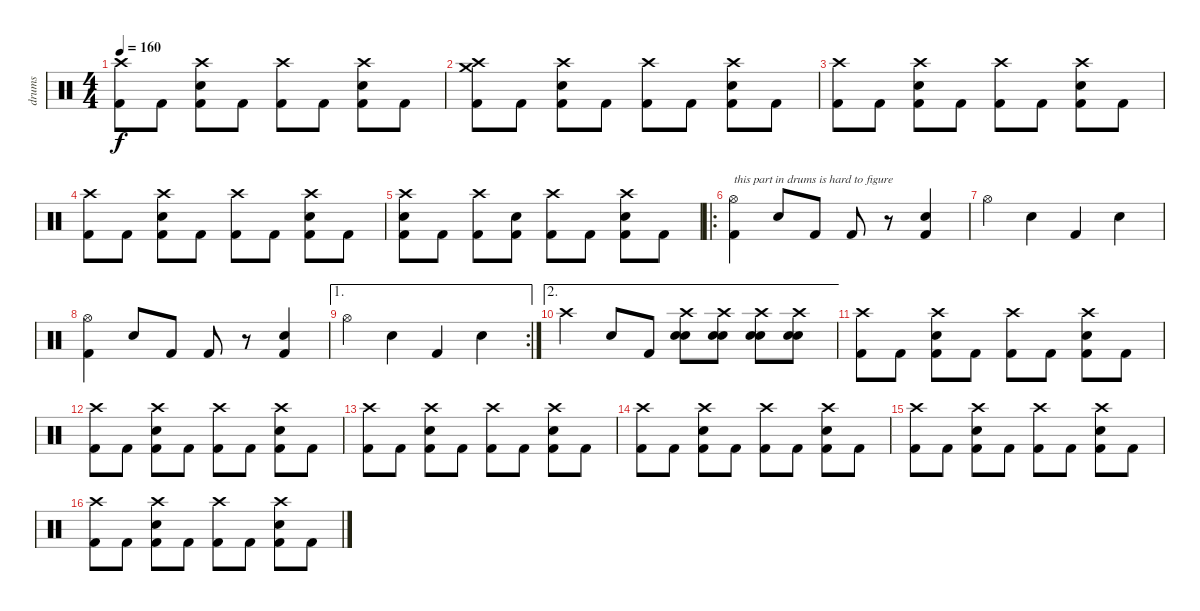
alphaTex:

\track ("drums" "drums") {instrument percussion}
\staff {score}
\articulation defaults
\ts (4 4)
\tempo 160
\clef neutral
\ks c
("Crash high (hit)" "Kick (hit) 2").8{dy f} "Kick (hit) 2".8 ("Crash high (hit)" "Electric Snare (hit)" "Kick (hit) 2").8 "Kick (hit) 2".8 ("Crash high (hit)" "Kick (hit) 2").8 "Kick (hit) 2".8 ("Crash high (hit)" "Electric Snare (hit)" "Kick (hit) 2").8 "Kick (hit) 2".8 |
("Crash high (hit)" "Crash medium (hit)" "Kick (hit) 2").8 "Kick (hit) 2".8 ("Crash high (hit)" "Electric Snare (hit)" "Kick (hit) 2").8 "Kick (hit) 2".8 ("Crash high (hit)" "Kick (hit) 2").8 "Kick (hit) 2".8 ("Crash high (hit)" "Electric Snare (hit)" "Kick (hit) 2").8 "Kick (hit) 2".8 |
("Crash high (hit)" "Kick (hit) 2").8 "Kick (hit) 2".8 ("Crash high (hit)" "Electric Snare (hit)" "Kick (hit) 2").8 "Kick (hit) 2".8 ("Crash high (hit)" "Kick (hit) 2").8 "Kick (hit) 2".8 ("Crash high (hit)" "Electric Snare (hit)" "Kick (hit) 2").8 "Kick (hit) 2".8 |
("Crash high (hit)" "Kick (hit) 2").8 "Kick (hit) 2".8 ("Crash high (hit)" "Electric Snare (hit)" "Kick (hit) 2").8 "Kick (hit) 2".8 ("Crash high (hit)" "Kick (hit) 2").8 "Kick (hit) 2".8 ("Crash high (hit)" "Electric Snare (hit)" "Kick (hit) 2").8 "Kick (hit) 2".8 |
("Crash high (hit)" "Electric Snare (hit)" "Kick (hit) 2").8 "Kick (hit) 2".8 ("Crash high (hit)" "Kick (hit) 2").8 ("Electric Snare (hit)" "Kick (hit) 2").8 ("Crash high (hit)" "Kick (hit) 2").8 "Kick (hit) 2".8 ("Crash high (hit)" "Electric Snare (hit)" "Kick (hit) 2").8 "Kick (hit) 2".8 |
\ro
("Hi-Hat (open)" "Kick (hit) 2").4{txt "this part in drums is hard to figure"} "Electric Snare (hit)".8 "Kick (hit) 2".8 "Kick (hit) 2".8 r.8 ("Electric Snare (hit)" "Kick (hit) 2").4 |
"Hi-Hat (open)".4 "Electric Snare (hit)".4 "Kick (hit) 2".4 "Electric Snare (hit)".4 |
("Hi-Hat (open)" "Kick (hit) 2").4 "Electric Snare (hit)".8 "Kick (hit) 2".8 "Kick (hit) 2".8 r.8 ("Electric Snare (hit)" "Kick (hit) 2").4 |
\ae 1
\rc 2 "Hi-Hat (open)".4 "Electric Snare (hit)".4 "Kick (hit) 2".4 "Electric Snare (hit)".4
|
\ae 2 "Crash high (hit)".4 "Electric Snare (hit)".8 "Kick (hit) 2".8
("Electric Snare (hit)" "Electric Snare (hit)" "Crash high (hit)").8 ("Electric Snare (hit)" "Electric Snare (hit)" "Crash high (hit)").8 ("Electric Snare (hit)" "Electric Snare (hit)" "Crash high (hit)").8 ("Electric Snare (hit)" "Electric Snare (hit)" "Crash high (hit)").8 |
("Crash high (hit)" "Kick (hit) 2").8 "Kick (hit) 2".8 ("Crash high (hit)" "Electric Snare (hit)" "Kick (hit) 2").8 "Kick (hit) 2".8 ("Crash high (hit)" "Kick (hit) 2").8 "Kick (hit) 2".8 ("Crash high (hit)" "Electric Snare (hit)" "Kick (hit) 2").8 "Kick (hit) 2".8 |
("Crash high (hit)" "Kick (hit) 2").8 "Kick (hit) 2".8 ("Crash high (hit)" "Electric Snare (hit)" "Kick (hit) 2").8 "Kick (hit) 2".8 ("Crash high (hit)" "Kick (hit) 2").8 "Kick (hit) 2".8 ("Crash high (hit)" "Electric Snare (hit)" "Kick (hit) 2").8 "Kick (hit) 2".8 |
("Crash high (hit)" "Kick (hit) 2").8 "Kick (hit) 2".8 ("Crash high (hit)" "Electric Snare (hit)" "Kick (hit) 2").8 "Kick (hit) 2".8 ("Crash high (hit)" "Kick (hit) 2").8 "Kick (hit) 2".8 ("Crash high (hit)" "Electric Snare (hit)" "Kick (hit) 2").8 "Kick (hit) 2".8 |
("Crash high (hit)" "Kick (hit) 2").8 "Kick (hit) 2".8 ("Crash high (hit)" "Electric Snare (hit)" "Kick (hit) 2").8 "Kick (hit) 2".8 ("Crash high (hit)" "Kick (hit) 2").8 "Kick (hit) 2".8 ("Crash high (hit)" "Electric Snare (hit)" "Kick (hit) 2").8 "Kick (hit) 2".8 |
("Crash high (hit)" "Kick (hit) 2").8 "Kick (hit) 2".8 ("Crash high (hit)" "Electric Snare (hit)" "Kick (hit) 2").8 "Kick (hit) 2".8 ("Crash high (hit)" "Kick (hit) 2").8 "Kick (hit) 2".8 ("Crash high (hit)" "Electric Snare (hit)" "Kick (hit) 2").8 "Kick (hit) 2".8 |
("Crash high (hit)" "Kick (hit) 2").8 "Kick (hit) 2".8 ("Crash high (hit)" "Electric Snare (hit)" "Kick (hit) 2").8 "Kick (hit) 2".8 ("Crash high (hit)" "Kick (hit) 2").8 "Kick (hit) 2".8 ("Crash high (hit)" "Electric Snare (hit)" "Kick (hit) 2").8 "Kick (hit) 2".8
